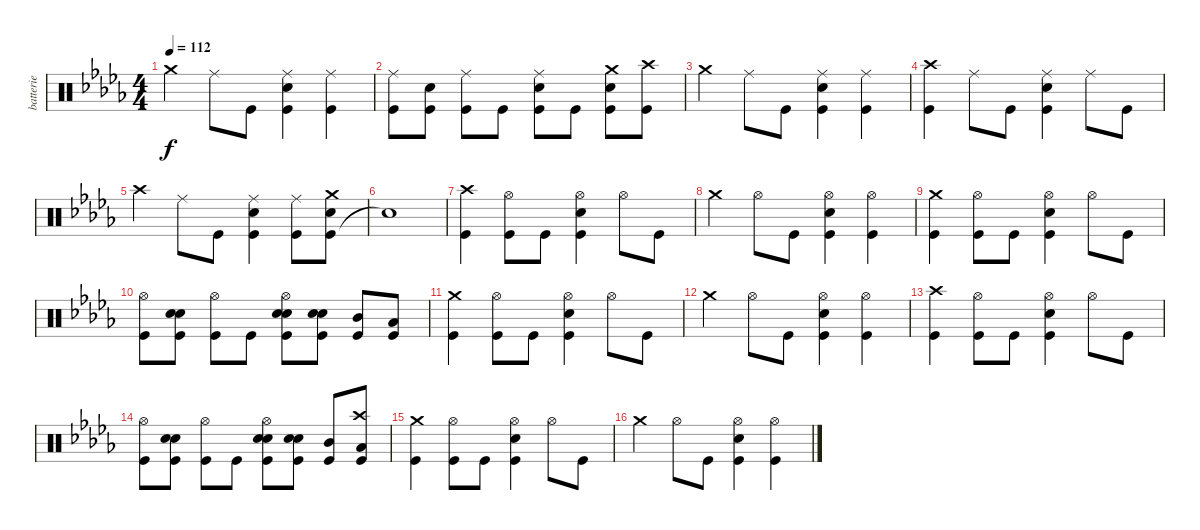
\track ("batterie" "batterie") {instrument percussion}
\staff {score}
\articulation defaults
\ts (4 4)
\tempo 112
\clef neutral
\ks bbminor "Crash medium (hit)".4{dy f} "Ride (middle)".8 "Kick (hit)".8
("Kick (hit)" "Snare (hit) 2" "Ride (middle)").4 ("Kick (hit)" "Ride (middle)").4 |
("Kick (hit)" "Ride (middle)").8 ("Kick (hit)" "Snare (hit) 2").8 ("Kick (hit)" "Ride (middle)").8 "Kick (hit)".8 ("Kick (hit)" "Snare (hit) 2" "Ride (middle)").8 "Kick (hit)".8 ("Kick (hit)" "Snare (hit) 2" "Crash medium (hit)").8 ("Kick (hit)" "Crash high (hit)").8 |
"Crash medium (hit)".4 "Ride (middle)".8 "Kick (hit)".8 ("Kick (hit)" "Snare (hit) 2" "Ride (middle)").4 ("Kick (hit)" "Ride (middle)").4 |
("Kick (hit)" "Crash high (hit)").4 "Ride (middle)".8 "Kick (hit)".8 ("Kick (hit)" "Snare (hit) 2" "Ride (middle)").4 "Ride (middle)".8 "Kick (hit)".8 |
"Crash high (hit)".4 "Ride (middle)".8 "Kick (hit)".8 ("Kick (hit)" "Snare (hit) 2" "Ride (middle)").4 ("Kick (hit)" "Ride (middle)").8 ("Kick (hit)" "Snare (hit) 2" "Crash medium (hit)").8 |
"Snare (hit)"{t}.1 |
("Kick (hit)" "Crash high (hit)").4 ("Kick (hit)" "Hi-Hat (open)").8 "Kick (hit)".8 ("Kick (hit)" "Snare (hit) 2" "Hi-Hat (open)").4 "Hi-Hat (open)".8 "Kick (hit)".8 |
"Crash medium (hit)".4 "Hi-Hat (open)".8 "Kick (hit)".8 ("Kick (hit)" "Snare (hit) 2" "Hi-Hat (open)").4 ("Kick (hit)" "Hi-Hat (open)").4 |
("Kick (hit)" "Crash medium (hit)").4 ("Kick (hit)" "Hi-Hat (open)").8 "Kick (hit)".8 ("Kick (hit)" "Snare (hit) 2" "Hi-Hat (open)").4 "Hi-Hat (open)".8 "Kick (hit)".8 |
("Kick (hit)" "Hi-Hat (open)").8 ("Kick (hit)" "Snare (hit) 2" "Snare (hit) 2").8 ("Kick (hit)" "Hi-Hat (open)").8 "Kick (hit)".8 ("Kick (hit)" "Snare (hit) 2" "Snare (hit) 2" "Hi-Hat (open)").8 ("Kick (hit)" "Snare (hit) 2" "Snare (hit) 2").8 ("Kick (hit)" "Mid Tom (hit)").8 ("Kick (hit)" "Low Tom (hit)").8 |
("Kick (hit)" "Crash medium (hit)").4 ("Kick (hit)" "Hi-Hat (open)").8 "Kick (hit)".8 ("Kick (hit)" "Snare (hit) 2" "Hi-Hat (open)").4 "Hi-Hat (open)".8 "Kick (hit)".8 |
"Crash medium (hit)".4 "Hi-Hat (open)".8 "Kick (hit)".8 ("Kick (hit)" "Snare (hit) 2" "Hi-Hat (open)").4 ("Kick (hit)" "Hi-Hat (open)").4 |
("Kick (hit)" "Crash high (hit)").4 ("Kick (hit)" "Hi-Hat (open)").8 "Kick (hit)".8 ("Kick (hit)" "Snare (hit) 2" "Hi-Hat (open)").4 "Hi-Hat (open)".8 "Kick (hit)".8 |
("Kick (hit)" "Hi-Hat (open)").8 ("Kick (hit)" "Snare (hit) 2" "Snare (hit) 2").8 ("Kick (hit)" "Hi-Hat (open)").8 "Kick (hit)".8 ("Kick (hit)" "Snare (hit) 2" "Snare (hit) 2" "Hi-Hat (open)").8 ("Kick (hit)" "Snare (hit) 2" "Snare (hit) 2").8 ("Kick (hit)" "Mid Tom (hit)").8 ("Kick (hit)" "Low Tom (hit)" "Crash high (hit)").8 |
("Kick (hit)" "Crash medium (hit)").4 ("Kick (hit)" "Hi-Hat (open)").8 "Kick (hit)".8 ("Kick (hit)" "Snare (hit) 2" "Hi-Hat (open)").4 "Hi-Hat (open)".8 "Kick (hit)".8 |
"Crash medium (hit)".4 "Hi-Hat (open)".8 "Kick (hit)".8 ("Kick (hit)" "Snare (hit) 2" "Hi-Hat (open)").4 ("Kick (hit)" "Hi-Hat (open)").4
